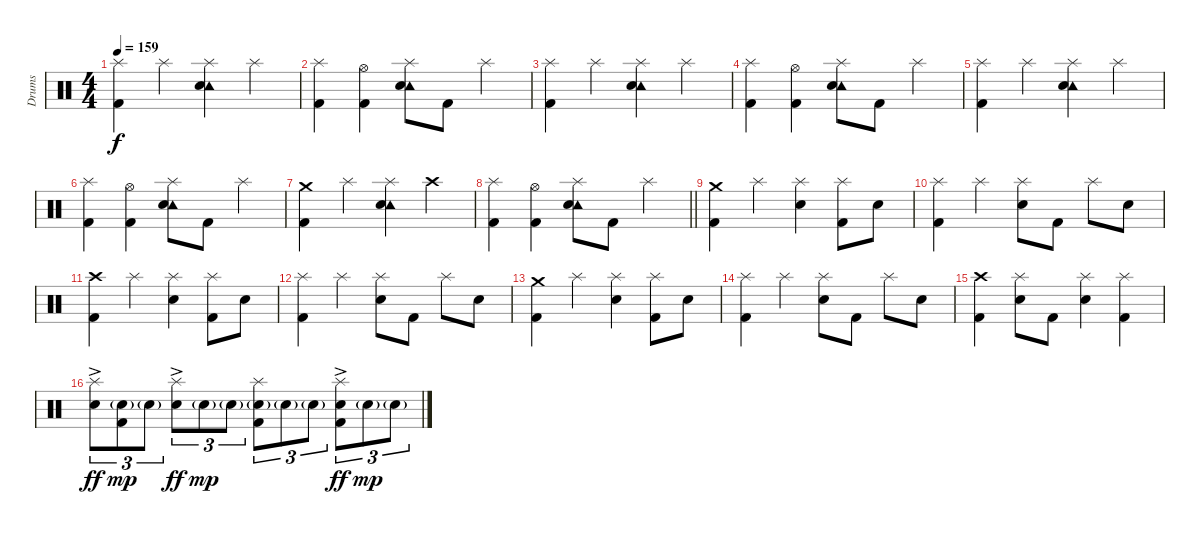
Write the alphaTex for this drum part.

\track ("Drums" "Drums") {instrument percussion}
\staff {score}
\articulation defaults
\ts (4 4)
\tempo 159
\clef neutral
\ks c
("Splash (hit)" "Kick (hit) 2").4{dy f} "Splash (hit)".4 ("Splash (hit)" "Tambourine (hit)" "Snare (hit) 2").4 "Splash (hit)".4 |
("Splash (hit)" "Kick (hit) 2").4 ("Hi-Hat (open)" "Kick (hit) 2").4 ("Splash (hit)" "Tambourine (hit)" "Snare (hit) 2").8 "Kick (hit) 2".8 "Splash (hit)".4 |
("Splash (hit)" "Kick (hit) 2").4 "Splash (hit)".4 ("Splash (hit)" "Tambourine (hit)" "Snare (hit) 2").4 "Splash (hit)".4 |
("Splash (hit)" "Kick (hit) 2").4 ("Hi-Hat (open)" "Kick (hit) 2").4 ("Splash (hit)" "Tambourine (hit)" "Snare (hit) 2").8 "Kick (hit) 2".8 "Splash (hit)".4 |
("Splash (hit)" "Kick (hit) 2").4 "Splash (hit)".4 ("Splash (hit)" "Tambourine (hit)" "Snare (hit) 2").4 "Splash (hit)".4 |
("Splash (hit)" "Kick (hit) 2").4 ("Hi-Hat (open)" "Kick (hit) 2").4 ("Splash (hit)" "Tambourine (hit)" "Snare (hit) 2").8 "Kick (hit) 2".8 "Splash (hit)".4 |
("Crash medium (hit)" "Kick (hit) 2").4 "Splash (hit)".4 ("Splash (hit)" "Tambourine (hit)" "Snare (hit) 2").4 "Crash high (hit)".4 |
\barLineRight lightlight
("Splash (hit)" "Kick (hit) 2").4 ("Hi-Hat (open)" "Kick (hit) 2").4 ("Splash (hit)" "Tambourine (hit)" "Snare (hit) 2").8 "Kick (hit) 2".8 "Splash (hit)".4 |
("Crash medium (hit)" "Kick (hit) 2").4 "Splash (hit)".4 ("Splash (hit)" "Snare (hit) 2").4 ("Splash (hit)" "Kick (hit) 2").8 "Snare (hit) 2".8 |
("Splash (hit)" "Kick (hit) 2").4 "Splash (hit)".4 ("Splash (hit)" "Snare (hit) 2").8 "Kick (hit) 2".8 "Splash (hit)".8 "Snare (hit) 2".8 |
("Crash high (hit)" "Kick (hit) 2").4 "Splash (hit)".4 ("Splash (hit)" "Snare (hit) 2").4 ("Splash (hit)" "Kick (hit) 2").8 "Snare (hit) 2".8 |
("Splash (hit)" "Kick (hit) 2").4 "Splash (hit)".4 ("Splash (hit)" "Snare (hit) 2").8 "Kick (hit) 2".8 "Splash (hit)".8 "Snare (hit) 2".8 |
("Crash medium (hit)" "Kick (hit) 2").4 "Splash (hit)".4 ("Splash (hit)" "Snare (hit) 2").4 ("Splash (hit)" "Kick (hit) 2").8 "Snare (hit) 2".8 |
("Splash (hit)" "Kick (hit) 2").4 "Splash (hit)".4 ("Splash (hit)" "Snare (hit) 2").8 "Kick (hit) 2".8 "Splash (hit)".8 "Snare (hit) 2".8 |
("Crash high (hit)" "Kick (hit) 2").4 ("Splash (hit)" "Snare (hit) 2").8 "Kick (hit) 2".8 ("Splash (hit)" "Snare (hit) 2").4 ("Splash (hit)" "Kick (hit) 2").4 |
("Splash (hit)" "Snare (hit) 2"{ac}).8{tu (3 2) dy ff} ("Snare (hit) 2"{g} "Kick (hit) 2").8{tu (3 2) dy mp} "Snare (hit) 2"{g}.8{tu (3 2)} ("Splash (hit)" "Snare (hit) 2"{ac}).8{tu (3 2) dy ff} "Snare (hit) 2"{g}.8{tu (3 2) dy mp} "Snare (hit) 2"{g}.8{tu (3 2)} ("Splash (hit)" "Snare (hit) 2"{g} "Kick (hit) 2").8{tu (3 2)} "Snare (hit) 2"{g}.8{tu (3 2)} "Snare (hit) 2"{g}.8{tu (3 2)} ("Splash (hit)" "Snare (hit) 2"{ac} "Kick (hit) 2").8{tu (3 2) dy ff} "Snare (hit) 2"{g}.8{tu (3 2) dy mp} "Snare (hit) 2"{g}.8{tu (3 2)}
